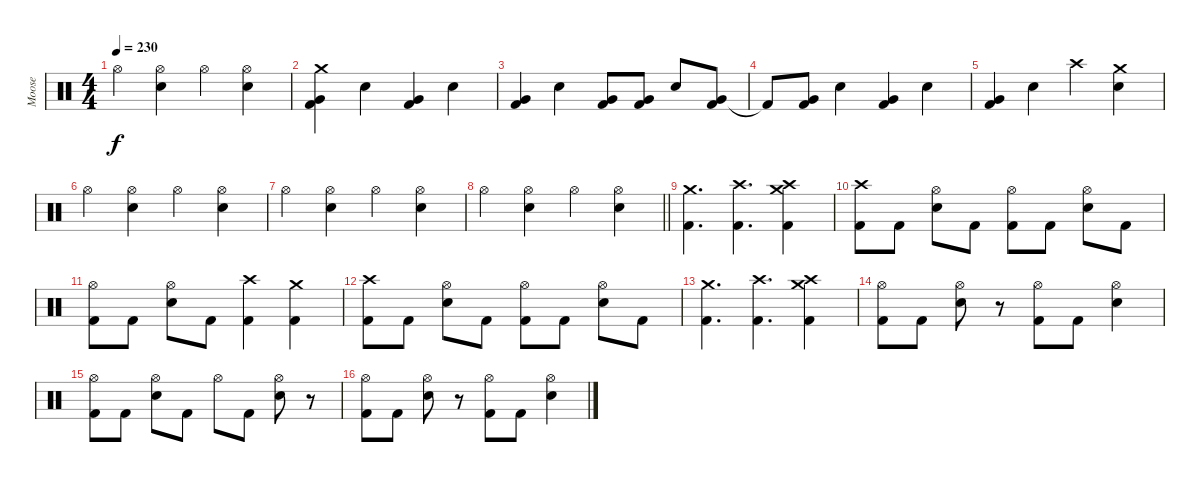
\track ("Moose" "Moose") {instrument percussion}
\staff {score}
\articulation defaults
\ts (4 4)
\tempo 230
\clef neutral
\ks c "Hi-Hat (open)".4{dy f}
("Hi-Hat (open)" "Snare (hit) 2").4 "Hi-Hat (open)".4 ("Hi-Hat (open)" "Snare (hit) 2").4 |
("Crash medium (hit)" "Very Low Tom (hit)" "Kick (hit) 2").4 "Snare (hit) 2".4 ("Very Low Tom (hit)" "Kick (hit) 2").4 "Snare (hit) 2".4 |
("Very Low Tom (hit)" "Kick (hit) 2").4 "Snare (hit) 2".4 ("Very Low Tom (hit)" "Kick (hit) 2").8 ("Very Low Tom (hit)" "Kick (hit) 2").8 "Snare (hit) 2".8 ("Very Low Tom (hit)" "Kick (hit) 2").8 |
"Kick (hit) 2"{t}.8 ("Very Low Tom (hit)" "Kick (hit) 2").8 "Snare (hit) 2".4 ("Very Low Tom (hit)" "Kick (hit) 2").4 "Snare (hit) 2".4 |
("Very Low Tom (hit)" "Kick (hit) 2").4 "Snare (hit) 2".4 "Crash high (hit)".4 ("Crash medium (hit)" "Snare (hit) 2").4 |
"Hi-Hat (open)".4 ("Hi-Hat (open)" "Snare (hit) 2").4 "Hi-Hat (open)".4 ("Hi-Hat (open)" "Snare (hit) 2").4 |
"Hi-Hat (open)".4 ("Hi-Hat (open)" "Snare (hit) 2").4 "Hi-Hat (open)".4 ("Hi-Hat (open)" "Snare (hit) 2").4 |
\barLineRight lightlight "Hi-Hat (open)".4
("Hi-Hat (open)" "Snare (hit) 2").4 "Hi-Hat (open)".4 ("Hi-Hat (open)" "Snare (hit) 2").4 |
\section ("" "")
("Crash medium (hit)" "Kick (hit) 2").4{d} ("Crash high (hit)" "Kick (hit) 2").4{d} ("Crash high (hit)" "Crash medium (hit)" "Kick (hit) 2").4 |
("Crash high (hit)" "Kick (hit) 2").8 "Kick (hit) 2".8 ("Hi-Hat (open)" "Snare (hit) 2").8 "Kick (hit) 2".8 ("Hi-Hat (open)" "Kick (hit) 2").8 "Kick (hit) 2".8 ("Hi-Hat (open)" "Snare (hit) 2").8 "Kick (hit) 2".8 |
("Hi-Hat (open)" "Kick (hit) 2").8 "Kick (hit) 2".8 ("Hi-Hat (open)" "Snare (hit) 2").8 "Kick (hit) 2".8 ("Crash high (hit)" "Kick (hit) 2").4 ("Crash medium (hit)" "Kick (hit) 2").4 |
("Crash high (hit)" "Kick (hit) 2").8 "Kick (hit) 2".8 ("Hi-Hat (open)" "Snare (hit) 2").8 "Kick (hit) 2".8 ("Hi-Hat (open)" "Kick (hit) 2").8 "Kick (hit) 2".8 ("Hi-Hat (open)" "Snare (hit) 2").8 "Kick (hit) 2".8 |
("Crash medium (hit)" "Kick (hit) 2").4{d} ("Crash high (hit)" "Kick (hit) 2").4{d} ("Crash high (hit)" "Crash medium (hit)" "Kick (hit) 2").4 |
("Hi-Hat (open)" "Kick (hit) 2").8 "Kick (hit) 2".8 ("Hi-Hat (open)" "Snare (hit) 2").8 r.8 ("Hi-Hat (open)" "Kick (hit) 2").8 "Kick (hit) 2".8 ("Hi-Hat (open)" "Snare (hit) 2").4 |
("Hi-Hat (open)" "Kick (hit) 2").8 "Kick (hit) 2".8 ("Hi-Hat (open)" "Snare (hit) 2").8 "Kick (hit) 2".8 "Hi-Hat (open)".8 "Kick (hit) 2".8 ("Hi-Hat (open)" "Snare (hit) 2").8 r.8 |
("Hi-Hat (open)" "Kick (hit) 2").8 "Kick (hit) 2".8 ("Hi-Hat (open)" "Snare (hit) 2").8 r.8 ("Hi-Hat (open)" "Kick (hit) 2").8 "Kick (hit) 2".8 ("Hi-Hat (open)" "Snare (hit) 2").4
